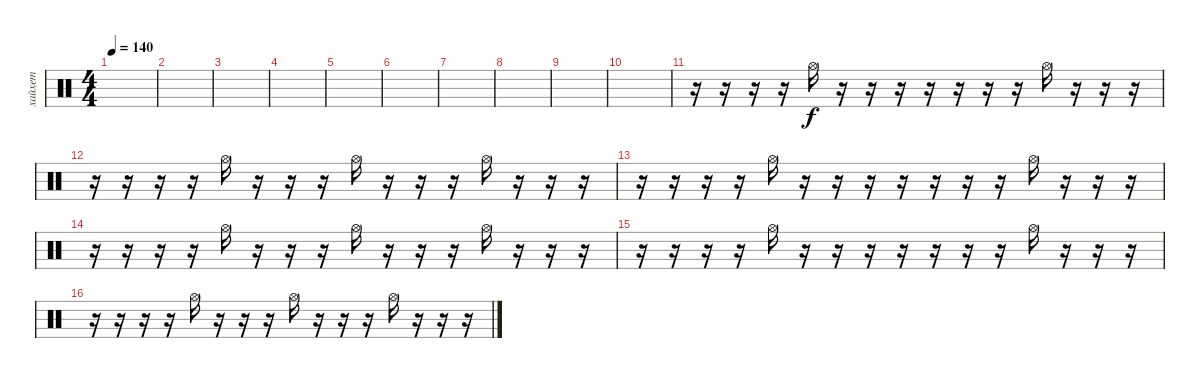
\track ("хайхет" "хайхет") {mute instrument percussion}
\staff {score}
\articulation defaults
\ts (4 4)
\tempo 140
\clef neutral
\ks c
|
|
|
|
|
|
|
|
|
|
r.16 r.16 r.16 r.16 "Hi-Hat (open)".16 r.16 r.16 r.16 r.16 r.16 r.16 r.16 "Hi-Hat (open)".16 r.16 r.16 r.16 |
r.16 r.16 r.16 r.16 "Hi-Hat (open)".16 r.16 r.16 r.16 "Hi-Hat (open)".16 r.16 r.16 r.16 "Hi-Hat (open)".16 r.16 r.16 r.16 |
r.16 r.16 r.16 r.16 "Hi-Hat (open)".16 r.16 r.16 r.16 r.16 r.16 r.16 r.16 "Hi-Hat (open)".16 r.16 r.16 r.16 |
r.16 r.16 r.16 r.16 "Hi-Hat (open)".16 r.16 r.16 r.16 "Hi-Hat (open)".16 r.16 r.16 r.16 "Hi-Hat (open)".16 r.16 r.16 r.16 |
r.16 r.16 r.16 r.16 "Hi-Hat (open)".16 r.16 r.16 r.16 r.16 r.16 r.16 r.16 "Hi-Hat (open)".16 r.16 r.16 r.16 |
r.16 r.16 r.16 r.16 "Hi-Hat (open)".16 r.16 r.16 r.16 "Hi-Hat (open)".16 r.16 r.16 r.16 "Hi-Hat (open)".16 r.16 r.16 r.16
